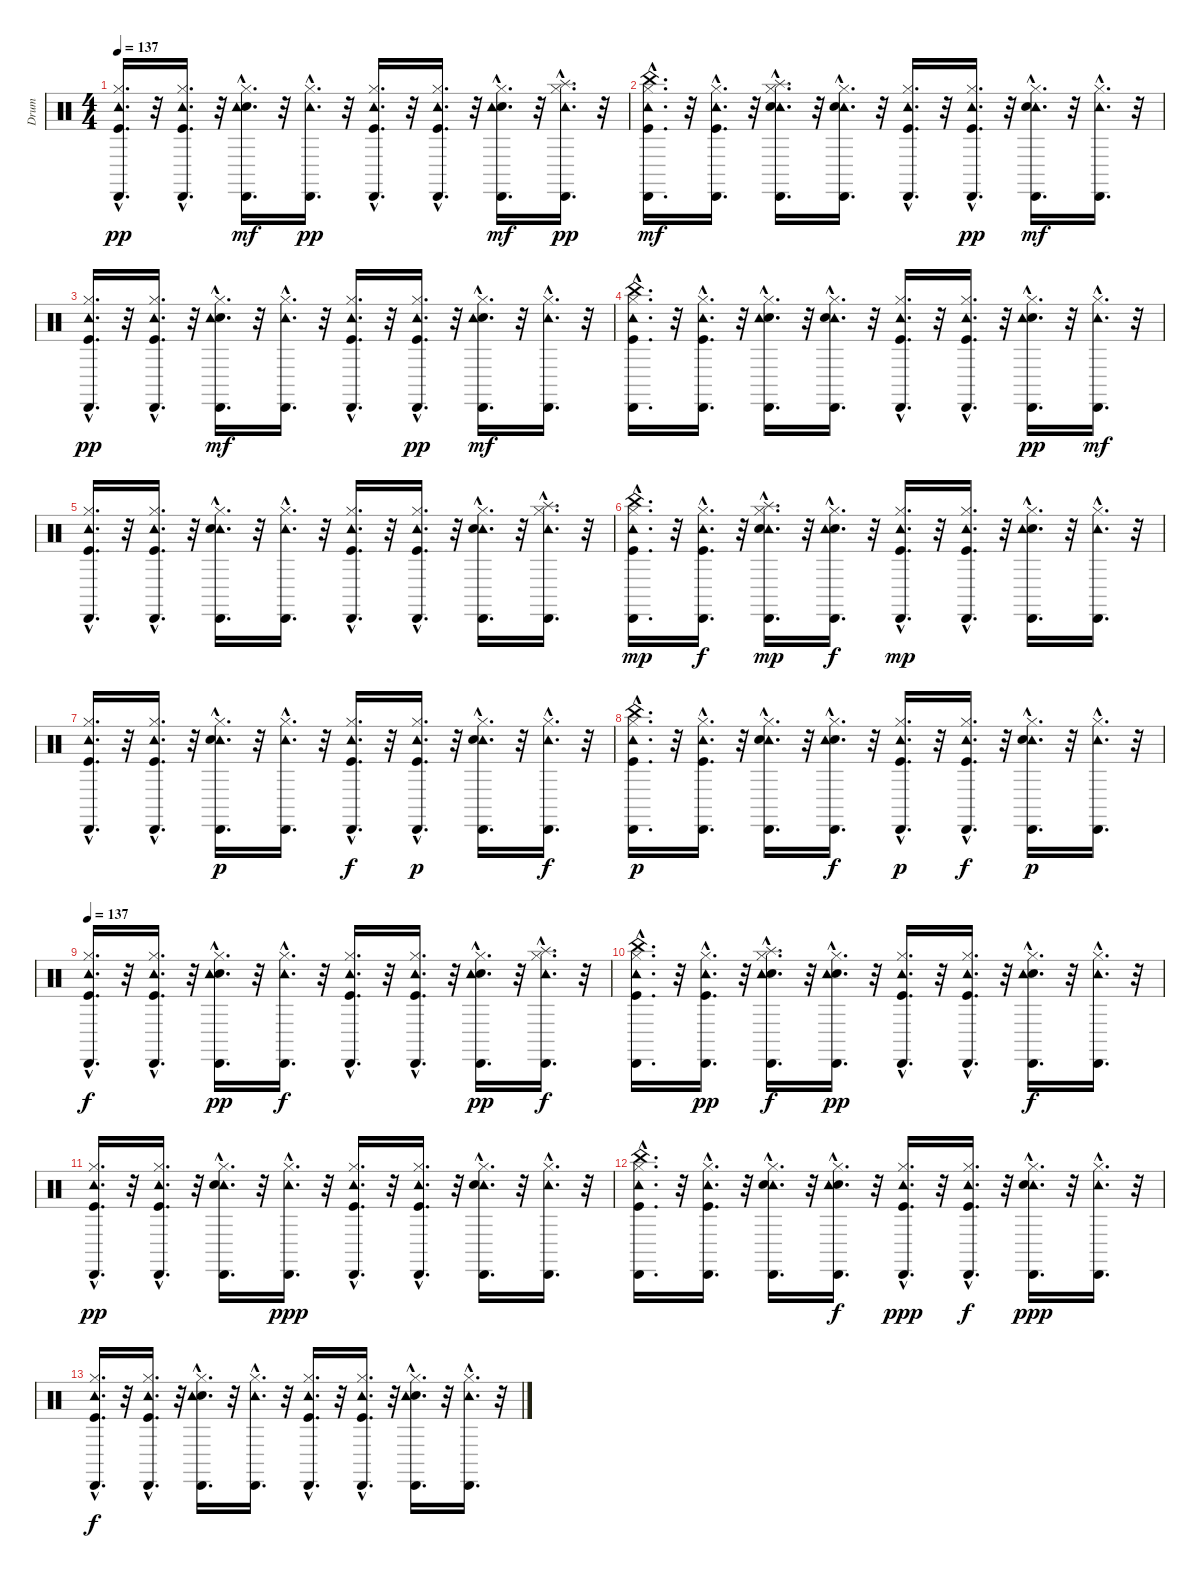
\track ("Drum" "Drum") {instrument percussion}
\staff {score}
\articulation defaults
\ts (4 4)
\tempo 137
\clef neutral
\ks c
("Kick (hit)"{hac} "Hi-Hat (closed)"{hac} "Cabasa (hit)"{hac} "Tambourine (hit)"{hac}).16{d dy pp} r.32 ("Kick (hit)"{hac} "Hi-Hat (closed)"{hac} "Cabasa (hit)"{hac} "Tambourine (hit)"{hac}).16{d} r.32 ("Snare (hit) 2"{hac} "Hi-Hat (closed)"{hac} "Tambourine (hit)"{hac} "Cabasa (hit)"{hac}).16{d dy mf} r.32 ("Hi-Hat (closed)"{hac} "Cabasa (hit)"{hac} "Tambourine (hit)"{hac}).16{d dy pp} r.32 ("Kick (hit)"{hac} "Hi-Hat (closed)"{hac} "Cabasa (hit)"{hac} "Tambourine (hit)"{hac}).16{d} r.32 ("Kick (hit)"{hac} "Hi-Hat (closed)"{hac} "Cabasa (hit)"{hac} "Tambourine (hit)"{hac}).16{d} r.32 ("Snare (hit) 2"{hac} "Hi-Hat (closed)"{hac} "Tambourine (hit)"{hac} "Cabasa (hit)"{hac}).16{d dy mf} r.32 ("Splash (hit)"{hac} "Hi-Hat (closed)"{hac} "Cabasa (hit)"{hac} "Tambourine (hit)"{hac}).16{d dy pp} r.32 |
("Tambourine (hit)"{hac} "Cabasa (hit)"{hac} "Hi-Hat (closed)"{hac} "Kick (hit)"{hac} "China (hit)"{hac}).16{d dy mf} r.32 ("Cabasa (hit)"{hac} "Tambourine (hit)"{hac} "Kick (hit)"{hac} "Hi-Hat (closed)"{hac}).16{d} r.32 ("Tambourine (hit)"{hac} "Cabasa (hit)"{hac} "Snare (hit) 2"{hac} "Hi-Hat (closed)"{hac} "Splash (hit)"{hac}).16{d} r.32 ("Cabasa (hit)"{hac} "Tambourine (hit)"{hac} "Hi-Hat (closed)"{hac} "Snare (hit) 2"{hac}).16{d} r.32 ("Kick (hit)"{hac} "Cabasa (hit)"{hac} "Tambourine (hit)"{hac} "Hi-Hat (closed)"{hac}).16{d} r.32 ("Cabasa (hit)"{hac} "Kick (hit)"{hac} "Hi-Hat (closed)"{hac} "Tambourine (hit)"{hac}).16{d dy pp} r.32 ("Tambourine (hit)"{hac} "Cabasa (hit)"{hac} "Hi-Hat (closed)"{hac} "Snare (hit) 2"{hac}).16{d dy mf} r.32 ("Tambourine (hit)"{hac} "Hi-Hat (closed)"{hac} "Cabasa (hit)"{hac}).16{d} r.32 |
("Hi-Hat (closed)"{hac} "Cabasa (hit)"{hac} "Kick (hit)"{hac} "Tambourine (hit)"{hac}).16{d dy pp} r.32 ("Hi-Hat (closed)"{hac} "Kick (hit)"{hac} "Cabasa (hit)"{hac} "Tambourine (hit)"{hac}).16{d} r.32 ("Snare (hit) 2"{hac} "Hi-Hat (closed)"{hac} "Tambourine (hit)"{hac} "Cabasa (hit)"{hac}).16{d dy mf} r.32 ("Hi-Hat (closed)"{hac} "Tambourine (hit)"{hac} "Cabasa (hit)"{hac}).16{d} r.32 ("Hi-Hat (closed)"{hac} "Kick (hit)"{hac} "Tambourine (hit)"{hac} "Cabasa (hit)"{hac}).16{d} r.32 ("Kick (hit)"{hac} "Hi-Hat (closed)"{hac} "Cabasa (hit)"{hac} "Tambourine (hit)"{hac}).16{d dy pp} r.32 ("Snare (hit) 2"{hac} "Tambourine (hit)"{hac} "Hi-Hat (closed)"{hac} "Cabasa (hit)"{hac}).16{d dy mf} r.32 ("Hi-Hat (closed)"{hac} "Tambourine (hit)"{hac} "Cabasa (hit)"{hac}).16{d} r.32 |
("Hi-Hat (closed)"{hac} "Tambourine (hit)"{hac} "Cabasa (hit)"{hac} "Kick (hit)"{hac} "China (hit)"{hac}).16{d} r.32 ("Hi-Hat (closed)"{hac} "Tambourine (hit)"{hac} "Kick (hit)"{hac} "Cabasa (hit)"{hac}).16{d} r.32 ("Snare (hit) 2"{hac} "Tambourine (hit)"{hac} "Cabasa (hit)"{hac} "Hi-Hat (closed)"{hac}).16{d} r.32 ("Tambourine (hit)"{hac} "Cabasa (hit)"{hac} "Snare (hit) 2"{hac} "Hi-Hat (closed)"{hac}).16{d} r.32 ("Cabasa (hit)"{hac} "Hi-Hat (closed)"{hac} "Tambourine (hit)"{hac} "Kick (hit)"{hac}).16{d} r.32 ("Tambourine (hit)"{hac} "Cabasa (hit)"{hac} "Kick (hit)"{hac} "Hi-Hat (closed)"{hac}).16{d} r.32 ("Cabasa (hit)"{hac} "Snare (hit) 2"{hac} "Hi-Hat (closed)"{hac} "Tambourine (hit)"{hac}).16{d dy pp} r.32 ("Cabasa (hit)"{hac} "Tambourine (hit)"{hac} "Hi-Hat (closed)"{hac}).16{d dy mf} r.32 |
("Tambourine (hit)"{hac} "Cabasa (hit)"{hac} "Hi-Hat (closed)"{hac} "Kick (hit)"{hac}).16{d} r.32 ("Tambourine (hit)"{hac} "Cabasa (hit)"{hac} "Hi-Hat (closed)"{hac} "Kick (hit)"{hac}).16{d} r.32 ("Cabasa (hit)"{hac} "Tambourine (hit)"{hac} "Hi-Hat (closed)"{hac} "Snare (hit) 2"{hac}).16{d} r.32 ("Tambourine (hit)"{hac} "Cabasa (hit)"{hac} "Hi-Hat (closed)"{hac}).16{d} r.32 ("Tambourine (hit)"{hac} "Cabasa (hit)"{hac} "Hi-Hat (closed)"{hac} "Kick (hit)"{hac}).16{d} r.32 ("Tambourine (hit)"{hac} "Cabasa (hit)"{hac} "Hi-Hat (closed)"{hac} "Kick (hit)"{hac}).16{d} r.32 ("Cabasa (hit)"{hac} "Tambourine (hit)"{hac} "Hi-Hat (closed)"{hac} "Snare (hit) 2"{hac}).16{d} r.32 ("Tambourine (hit)"{hac} "Cabasa (hit)"{hac} "Hi-Hat (closed)"{hac} "Splash (hit)"{hac}).16{d} r.32 |
("Hi-Hat (closed)"{hac} "China (hit)"{hac} "Kick (hit)"{hac} "Cabasa (hit)"{hac} "Tambourine (hit)"{hac}).16{d dy mp} r.32 ("Kick (hit)"{hac} "Hi-Hat (closed)"{hac} "Cabasa (hit)"{hac} "Tambourine (hit)"{hac}).16{d dy f} r.32 ("Splash (hit)"{hac} "Hi-Hat (closed)"{hac} "Tambourine (hit)"{hac} "Snare (hit) 2"{hac} "Cabasa (hit)"{hac}).16{d dy mp} r.32 ("Hi-Hat (closed)"{hac} "Cabasa (hit)"{hac} "Snare (hit) 2"{hac} "Tambourine (hit)"{hac}).16{d dy f} r.32 ("Tambourine (hit)"{hac} "Hi-Hat (closed)"{hac} "Kick (hit)"{hac} "Cabasa (hit)"{hac}).16{d dy mp} r.32 ("Tambourine (hit)"{hac} "Hi-Hat (closed)"{hac} "Kick (hit)"{hac} "Cabasa (hit)"{hac}).16{d} r.32 ("Hi-Hat (closed)"{hac} "Snare (hit) 2"{hac} "Tambourine (hit)"{hac} "Cabasa (hit)"{hac}).16{d} r.32 ("Cabasa (hit)"{hac} "Tambourine (hit)"{hac} "Hi-Hat (closed)"{hac}).16{d} r.32 |
("Tambourine (hit)"{hac} "Cabasa (hit)"{hac} "Kick (hit)"{hac} "Hi-Hat (closed)"{hac}).16{d} r.32 ("Tambourine (hit)"{hac} "Cabasa (hit)"{hac} "Hi-Hat (closed)"{hac} "Kick (hit)"{hac}).16{d} r.32 ("Cabasa (hit)"{hac} "Tambourine (hit)"{hac} "Snare (hit) 2"{hac} "Hi-Hat (closed)"{hac}).16{d dy p} r.32 ("Cabasa (hit)"{hac} "Tambourine (hit)"{hac} "Hi-Hat (closed)"{hac}).16{d} r.32 ("Cabasa (hit)"{hac} "Kick (hit)"{hac} "Hi-Hat (closed)"{hac} "Tambourine (hit)"{hac}).16{d dy f} r.32 ("Tambourine (hit)"{hac} "Cabasa (hit)"{hac} "Kick (hit)"{hac} "Hi-Hat (closed)"{hac}).16{d dy p} r.32 ("Cabasa (hit)"{hac} "Tambourine (hit)"{hac} "Snare (hit) 2"{hac} "Hi-Hat (closed)"{hac}).16{d} r.32 ("Cabasa (hit)"{hac} "Hi-Hat (closed)"{hac} "Tambourine (hit)"{hac}).16{d dy f} r.32 |
("China (hit)"{hac} "Kick (hit)"{hac} "Cabasa (hit)"{hac} "Tambourine (hit)"{hac} "Hi-Hat (closed)"{hac}).16{d dy p} r.32 ("Cabasa (hit)"{hac} "Kick (hit)"{hac} "Tambourine (hit)"{hac} "Hi-Hat (closed)"{hac}).16{d} r.32 ("Hi-Hat (closed)"{hac} "Cabasa (hit)"{hac} "Tambourine (hit)"{hac} "Snare (hit) 2"{hac}).16{d} r.32 ("Hi-Hat (closed)"{hac} "Snare (hit) 2"{hac} "Cabasa (hit)"{hac} "Tambourine (hit)"{hac}).16{d dy f} r.32 ("Kick (hit)"{hac} "Tambourine (hit)"{hac} "Hi-Hat (closed)"{hac} "Cabasa (hit)"{hac}).16{d dy p} r.32 ("Hi-Hat (closed)"{hac} "Kick (hit)"{hac} "Cabasa (hit)"{hac} "Tambourine (hit)"{hac}).16{d dy f} r.32 ("Tambourine (hit)"{hac} "Hi-Hat (closed)"{hac} "Snare (hit) 2"{hac} "Cabasa (hit)"{hac}).16{d dy p} r.32 ("Hi-Hat (closed)"{hac} "Tambourine (hit)"{hac} "Cabasa (hit)"{hac}).16{d} r.32 |
\tempo 137
("Kick (hit)"{hac} "Hi-Hat (closed)"{hac} "Cabasa (hit)"{hac} "Tambourine (hit)"{hac}).16{d dy f} r.32 ("Kick (hit)"{hac} "Hi-Hat (closed)"{hac} "Cabasa (hit)"{hac} "Tambourine (hit)"{hac}).16{d} r.32 ("Snare (hit) 2"{hac} "Hi-Hat (closed)"{hac} "Tambourine (hit)"{hac} "Cabasa (hit)"{hac}).16{d dy pp} r.32 ("Hi-Hat (closed)"{hac} "Cabasa (hit)"{hac} "Tambourine (hit)"{hac}).16{d dy f} r.32 ("Kick (hit)"{hac} "Hi-Hat (closed)"{hac} "Cabasa (hit)"{hac} "Tambourine (hit)"{hac}).16{d} r.32 ("Kick (hit)"{hac} "Hi-Hat (closed)"{hac} "Cabasa (hit)"{hac} "Tambourine (hit)"{hac}).16{d} r.32 ("Snare (hit) 2"{hac} "Hi-Hat (closed)"{hac} "Tambourine (hit)"{hac} "Cabasa (hit)"{hac}).16{d dy pp} r.32 ("Splash (hit)"{hac} "Hi-Hat (closed)"{hac} "Cabasa (hit)"{hac} "Tambourine (hit)"{hac}).16{d dy f} r.32 |
("China (hit)"{hac} "Kick (hit)"{hac} "Hi-Hat (closed)"{hac} "Cabasa (hit)"{hac} "Tambourine (hit)"{hac}).16{d} r.32 ("Hi-Hat (closed)"{hac} "Kick (hit)"{hac} "Tambourine (hit)"{hac} "Cabasa (hit)"{hac}).16{d dy pp} r.32 ("Splash (hit)"{hac} "Hi-Hat (closed)"{hac} "Snare (hit) 2"{hac} "Cabasa (hit)"{hac} "Tambourine (hit)"{hac}).16{d dy f} r.32 ("Snare (hit) 2"{hac} "Hi-Hat (closed)"{hac} "Tambourine (hit)"{hac} "Cabasa (hit)"{hac}).16{d dy pp} r.32 ("Hi-Hat (closed)"{hac} "Tambourine (hit)"{hac} "Cabasa (hit)"{hac} "Kick (hit)"{hac}).16{d} r.32 ("Tambourine (hit)"{hac} "Hi-Hat (closed)"{hac} "Kick (hit)"{hac} "Cabasa (hit)"{hac}).16{d} r.32 ("Snare (hit) 2"{hac} "Hi-Hat (closed)"{hac} "Cabasa (hit)"{hac} "Tambourine (hit)"{hac}).16{d dy f} r.32 ("Cabasa (hit)"{hac} "Hi-Hat (closed)"{hac} "Tambourine (hit)"{hac}).16{d} r.32 |
("Tambourine (hit)"{hac} "Kick (hit)"{hac} "Cabasa (hit)"{hac} "Hi-Hat (closed)"{hac}).16{d dy pp} r.32 ("Tambourine (hit)"{hac} "Cabasa (hit)"{hac} "Kick (hit)"{hac} "Hi-Hat (closed)"{hac}).16{d} r.32 ("Cabasa (hit)"{hac} "Tambourine (hit)"{hac} "Hi-Hat (closed)"{hac} "Snare (hit) 2"{hac}).16{d} r.32 ("Cabasa (hit)"{hac} "Tambourine (hit)"{hac} "Hi-Hat (closed)"{hac}).16{d dy ppp} r.32 ("Cabasa (hit)"{hac} "Tambourine (hit)"{hac} "Kick (hit)"{hac} "Hi-Hat (closed)"{hac}).16{d} r.32 ("Tambourine (hit)"{hac} "Cabasa (hit)"{hac} "Hi-Hat (closed)"{hac} "Kick (hit)"{hac}).16{d} r.32 ("Cabasa (hit)"{hac} "Hi-Hat (closed)"{hac} "Tambourine (hit)"{hac} "Snare (hit) 2"{hac}).16{d} r.32 ("Cabasa (hit)"{hac} "Tambourine (hit)"{hac} "Hi-Hat (closed)"{hac}).16{d} r.32 |
("China (hit)"{hac} "Kick (hit)"{hac} "Cabasa (hit)"{hac} "Tambourine (hit)"{hac} "Hi-Hat (closed)"{hac}).16{d} r.32 ("Cabasa (hit)"{hac} "Kick (hit)"{hac} "Tambourine (hit)"{hac} "Hi-Hat (closed)"{hac}).16{d} r.32 ("Hi-Hat (closed)"{hac} "Cabasa (hit)"{hac} "Tambourine (hit)"{hac} "Snare (hit) 2"{hac}).16{d} r.32 ("Hi-Hat (closed)"{hac} "Snare (hit) 2"{hac} "Cabasa (hit)"{hac} "Tambourine (hit)"{hac}).16{d dy f} r.32 ("Kick (hit)"{hac} "Tambourine (hit)"{hac} "Hi-Hat (closed)"{hac} "Cabasa (hit)"{hac}).16{d dy ppp} r.32 ("Hi-Hat (closed)"{hac} "Kick (hit)"{hac} "Cabasa (hit)"{hac} "Tambourine (hit)"{hac}).16{d dy f} r.32 ("Tambourine (hit)"{hac} "Hi-Hat (closed)"{hac} "Snare (hit) 2"{hac} "Cabasa (hit)"{hac}).16{d dy ppp} r.32 ("Hi-Hat (closed)"{hac} "Tambourine (hit)"{hac} "Cabasa (hit)"{hac}).16{d} r.32 |
("Kick (hit)"{hac} "Hi-Hat (closed)"{hac} "Cabasa (hit)"{hac} "Tambourine (hit)"{hac}).16{d dy f} r.32 ("Kick (hit)"{hac} "Hi-Hat (closed)"{hac} "Cabasa (hit)"{hac} "Tambourine (hit)"{hac}).16{d} r.32 ("Snare (hit) 2"{hac} "Hi-Hat (closed)"{hac} "Tambourine (hit)"{hac} "Cabasa (hit)"{hac}).16{d} r.32 ("Hi-Hat (closed)"{hac} "Cabasa (hit)"{hac} "Tambourine (hit)"{hac}).16{d} r.32 ("Kick (hit)"{hac} "Hi-Hat (closed)"{hac} "Cabasa (hit)"{hac} "Tambourine (hit)"{hac}).16{d} r.32 ("Kick (hit)"{hac} "Hi-Hat (closed)"{hac} "Cabasa (hit)"{hac} "Tambourine (hit)"{hac}).16{d} r.32 ("Snare (hit) 2"{hac} "Hi-Hat (closed)"{hac} "Tambourine (hit)"{hac} "Cabasa (hit)"{hac}).16{d} r.32 ("Hi-Hat (closed)"{hac} "Cabasa (hit)"{hac} "Tambourine (hit)"{hac}).16{d} r.32
